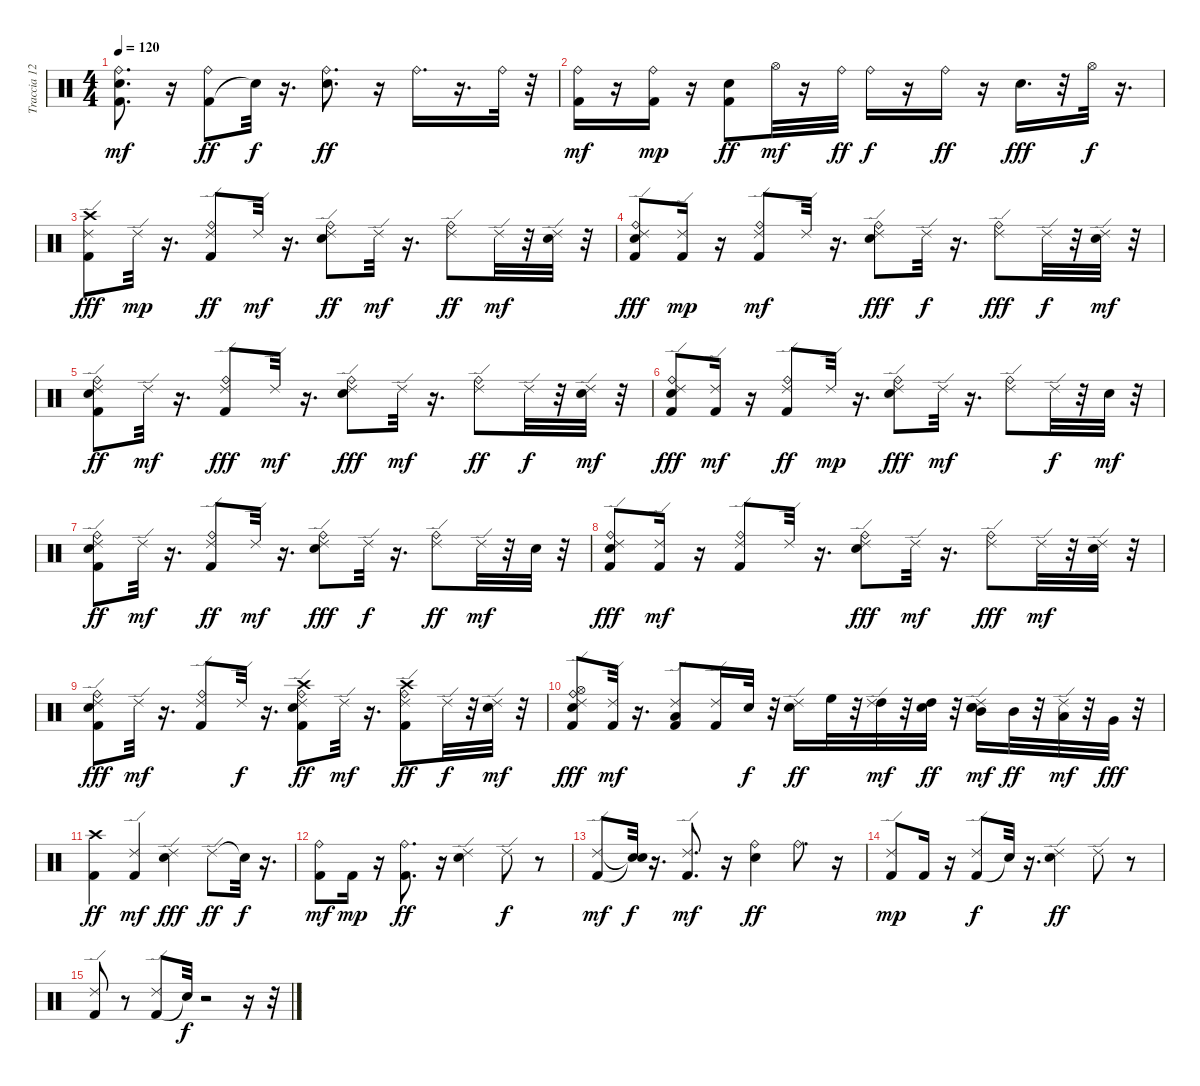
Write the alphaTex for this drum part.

\track ("Traccia 12-13-14-15-16-17-18" "Traccia 12") {instrument percussion}
\staff {score}
\articulation defaults
\ts (4 4)
\tempo 120
\clef neutral
\ks c
("Electric Snare (hit)" "Kick (hit) 2" "Ride (bell)").8{d dy mf} r.16 ("Kick (hit) 2" "Ride (bell)").8{dy ff} "Snare (hit)"{t}.32{dy f} r.16{d} ("Electric Snare (hit)" "Ride (bell)").8{d dy ff} r.16 "Ride (bell)".16{d} r.16{d} "Ride (bell)".32 r.32 |
("Kick (hit) 2" "Ride (bell)").16{dy mf} r.16 ("Ride (bell)" "Kick (hit) 2").16{dy mp} r.16 ("Electric Snare (hit)" "Kick (hit) 2").8{dy ff} "Hi-Hat (open)".32{dy mf} r.16 "Ride (bell)".32{dy ff} "Ride (bell)".16{dy f} r.16 "Ride (bell)".16{dy ff} r.16 "Electric Snare (hit)".16{d dy fff} r.32 "Hi-Hat (open)".32{dy f} r.16{d} |
("Kick (hit) 2" "Ride (edge) 2" "Crash high (hit)").8{dy fff} "Ride (edge) 2".32{dy mp} r.16{d} ("Kick (hit) 2" "Ride (edge) 2" "Ride (bell)").8{dy ff} "Ride (edge) 2".32{dy mf} r.16{d} ("Electric Snare (hit)" "Ride (bell)" "Ride (edge) 2").8{dy ff} "Ride (edge) 2".32{dy mf} r.16{d} ("Ride (edge) 2" "Ride (bell)").8{dy ff} "Ride (edge) 2".32{dy mf} r.32 ("Electric Snare (hit)" "Ride (edge) 2").32 r.32 |
("Electric Snare (hit)" "Kick (hit) 2" "Ride (edge) 2" "Ride (bell)").8{dy fff} ("Kick (hit) 2" "Ride (edge) 2").16{dy mp} r.16 ("Kick (hit) 2" "Ride (bell)" "Ride (edge) 2").8{dy mf} "Ride (edge) 2".32 r.16{d} ("Electric Snare (hit)" "Ride (edge) 2" "Ride (bell)").8{dy fff} "Ride (edge) 2".32{dy f} r.16{d} ("Ride (edge) 2" "Ride (bell)").8{dy fff} "Ride (edge) 2".32{dy f} r.32 ("Electric Snare (hit)" "Ride (edge) 2").32{dy mf} r.32 |
("Electric Snare (hit)" "Kick (hit) 2" "Ride (bell)" "Ride (edge) 2").8{dy ff} "Ride (edge) 2".32{dy mf} r.16{d} ("Kick (hit) 2" "Ride (bell)" "Ride (edge) 2").8{dy fff} "Ride (edge) 2".32{dy mf} r.16{d} ("Electric Snare (hit)" "Ride (bell)" "Ride (edge) 2").8{dy fff} "Ride (edge) 2".32{dy mf} r.16{d} ("Ride (edge) 2" "Ride (bell)").8{dy ff} "Ride (edge) 2".32{dy f} r.32 ("Electric Snare (hit)" "Ride (edge) 2").32{dy mf} r.32 |
("Electric Snare (hit)" "Kick (hit) 2" "Ride (edge) 2" "Ride (bell)").8{dy fff} ("Kick (hit) 2" "Ride (edge) 2").16{dy mf} r.16 ("Kick (hit) 2" "Ride (edge) 2" "Ride (bell)").8{dy ff} "Ride (edge) 2".32{dy mp} r.16{d} ("Electric Snare (hit)" "Ride (edge) 2" "Ride (bell)").8{dy fff} "Ride (edge) 2".32{dy mf} r.16{d} ("Ride (bell)" "Ride (edge) 2").8 "Ride (edge) 2".32{dy f} r.32 "Electric Snare (hit)".32{dy mf} r.32 |
("Electric Snare (hit)" "Kick (hit) 2" "Ride (bell)" "Ride (edge) 2").8{dy ff} "Ride (edge) 2".32{dy mf} r.16{d} ("Kick (hit) 2" "Ride (edge) 2" "Ride (bell)").8{dy ff} "Ride (edge) 2".32{dy mf} r.16{d} ("Electric Snare (hit)" "Ride (edge) 2" "Ride (bell)").8{dy fff} "Ride (edge) 2".32{dy f} r.16{d} ("Ride (edge) 2" "Ride (bell)").8{dy ff} "Ride (edge) 2".32{dy mf} r.32 "Electric Snare (hit)".32 r.32 |
("Electric Snare (hit)" "Kick (hit) 2" "Ride (bell)" "Ride (edge) 2").8{dy fff} ("Kick (hit) 2" "Ride (edge) 2").16{dy mf} r.16 ("Kick (hit) 2" "Ride (bell)" "Ride (edge) 2").8 "Ride (edge) 2".32 r.16{d} ("Electric Snare (hit)" "Ride (edge) 2" "Ride (bell)").8{dy fff} "Ride (edge) 2".32{dy mf} r.16{d} ("Ride (edge) 2" "Ride (bell)").8{dy fff} "Ride (edge) 2".32{dy mf} r.32 ("Electric Snare (hit)" "Ride (edge) 2").32 r.32 |
("Electric Snare (hit)" "Kick (hit) 2" "Ride (bell)" "Ride (edge) 2").8{dy fff volume 14} "Ride (edge) 2".32{dy mf volume 13} r.16{d} ("Kick (hit) 2" "Ride (bell)" "Ride (edge) 2").8{volume 13} "Ride (edge) 2".32{dy f volume 12} r.16{d} ("Electric Snare (hit)" "Kick (hit) 2" "Ride (edge) 2" "Ride (bell)" "Crash high (hit)").8{dy ff volume 12} "Ride (edge) 2".32{dy mf volume 12} r.16{d} ("Kick (hit) 2" "Ride (edge) 2" "Ride (bell)" "Crash high (hit)").8{dy ff volume 12} "Ride (edge) 2".32{dy f volume 11} r.32 ("Electric Snare (hit)" "Ride (edge) 2").32{dy mf} r.32 |
("Hi-Hat (open)" "Electric Snare (hit)" "Kick (hit) 2" "Ride (bell)" "Ride (edge) 2").8{dy fff} ("Kick (hit) 2" "Ride (edge) 2").32{dy mf volume 11} r.16{d} ("Low Floor Tom (hit)" "Kick (hit) 2" "Ride (edge) 2").8{volume 10} ("Kick (hit) 2" "Ride (edge) 2").16{volume 10} "Electric Snare (hit)".32{dy f volume 10} r.32 ("Electric Snare (hit)" "Ride (edge) 2").16{dy ff} "High Floor Tom (hit)".32{volume 9} r.32 ("High Tom (hit)" "Ride (edge) 2").32{dy mf volume 9} r.32 ("High Tom (hit)" "Electric Snare (hit)").32{dy ff volume 9} r.32 ("Electric Snare (hit)" "Mid Tom (hit)" "Electric Snare (hit)" "Ride (edge) 2").16{dy mf} "Mid Tom (hit)".32{dy ff volume 8} r.32 ("Low Tom (hit)" "Ride (edge) 2").32{dy mf volume 8} r.32 "Very Low Tom (hit)".32{dy fff volume 8} r.32 |
("Kick (hit) 2" "Crash high (hit)").4{dy ff} ("Kick (hit) 2" "Ride (edge) 2").4{dy mf volume 8} ("Electric Snare (hit)" "Ride (edge) 2").4{dy fff volume 7} "Ride (edge) 2".8{dy ff volume 7} "Snare (hit)"{t}.32{dy f} r.16{d} |
("Kick (hit) 2" "Ride (bell)").8{dy mf volume 6} "Kick (hit) 2".16{dy mp volume 6} r.16 ("Kick (hit) 2" "Ride (bell)").8{d dy ff volume 6} r.16 ("Electric Snare (hit)" "Ride (edge) 2").4{volume 5} "Ride (edge) 2".8{dy f volume 5} r.8 |
("Kick (hit) 2" "Ride (edge) 2").8{dy mf volume 4} ("Snare (hit)"{t} "Snare (hit)"{t}).32{dy f} r.16{d} ("Kick (hit) 2" "Ride (edge) 2").8{d dy mf volume 4} r.16 ("Electric Snare (hit)" "Ride (bell)").4{dy ff volume 4} "Ride (bell)".8{d volume 3} r.16 |
("Kick (hit) 2" "Ride (edge) 2").8{dy mp volume 3} "Kick (hit) 2".16{volume 3} r.16 ("Kick (hit) 2" "Ride (edge) 2").8{dy f volume 2} "Snare (hit)"{t}.32 r.16{d} ("Electric Snare (hit)" "Ride (edge) 2").4{dy ff volume 2} "Ride (edge) 2".8 r.8 |
("Kick (hit) 2" "Ride (edge) 2").8{volume 1} r.8 ("Kick (hit) 2" "Ride (edge) 2").8{volume 1} "Snare (hit)"{t}.32{dy f} r.2 r.16 r.32
